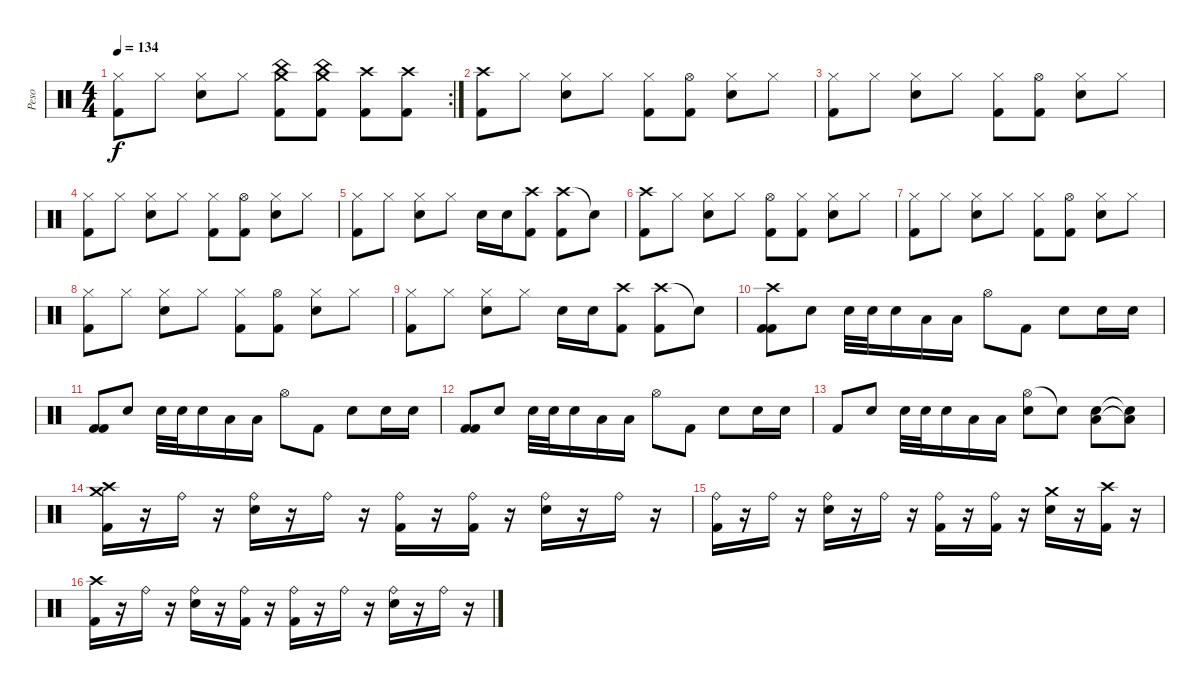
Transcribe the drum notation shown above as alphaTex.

\track ("Peso" "Peso") {instrument percussion}
\staff {score}
\articulation defaults
\rc 2
\ts (4 4)
\tempo 134
\clef neutral
\ks c
("Hi-Hat (closed)" "Kick (hit) 2").8{dy f} "Hi-Hat (closed)".8 ("Hi-Hat (closed)" "Snare (hit) 2").8 "Hi-Hat (closed)".8 ("Crash medium (hit)" "China (hit)" "Kick (hit) 2").8 ("Crash medium (hit)" "China (hit)" "Kick (hit) 2").8 ("Crash high (hit)" "Kick (hit) 2").8 ("Crash high (hit)" "Kick (hit) 2").8 |
("Crash high (hit)" "Kick (hit) 2").8 "Hi-Hat (closed)".8 ("Hi-Hat (closed)" "Snare (hit) 2").8 "Hi-Hat (closed)".8 ("Hi-Hat (closed)" "Kick (hit) 2").8 ("Hi-Hat (open)" "Kick (hit) 2").8 ("Hi-Hat (closed)" "Snare (hit) 2").8 "Hi-Hat (closed)".8 |
("Hi-Hat (closed)" "Kick (hit) 2").8 "Hi-Hat (closed)".8 ("Hi-Hat (closed)" "Snare (hit) 2").8 "Hi-Hat (closed)".8 ("Hi-Hat (closed)" "Kick (hit) 2").8 ("Hi-Hat (open)" "Kick (hit) 2").8 ("Hi-Hat (closed)" "Snare (hit) 2").8 "Hi-Hat (closed)".8 |
("Hi-Hat (closed)" "Kick (hit) 2").8 "Hi-Hat (closed)".8 ("Hi-Hat (closed)" "Snare (hit) 2").8 "Hi-Hat (closed)".8 ("Hi-Hat (closed)" "Kick (hit) 2").8 ("Hi-Hat (open)" "Kick (hit) 2").8 ("Hi-Hat (closed)" "Snare (hit) 2").8 "Hi-Hat (closed)".8 |
("Hi-Hat (closed)" "Kick (hit) 2").8 "Hi-Hat (closed)".8 ("Hi-Hat (closed)" "Snare (hit) 2").8 "Hi-Hat (closed)".8 "Snare (hit) 2".16 "Snare (hit) 2".16 ("Crash high (hit)" "Kick (hit) 2").8 ("Crash high (hit)" "Kick (hit) 2").8 "Snare (hit)"{t}.8 |
("Crash high (hit)" "Kick (hit) 2").8 "Hi-Hat (closed)".8 ("Hi-Hat (closed)" "Snare (hit) 2").8 "Hi-Hat (closed)".8 ("Hi-Hat (open)" "Kick (hit) 2").8 ("Hi-Hat (closed)" "Kick (hit) 2").8 ("Hi-Hat (closed)" "Snare (hit) 2").8 "Hi-Hat (closed)".8 |
("Hi-Hat (closed)" "Kick (hit) 2").8 "Hi-Hat (closed)".8 ("Hi-Hat (closed)" "Snare (hit) 2").8 "Hi-Hat (closed)".8 ("Hi-Hat (closed)" "Kick (hit) 2").8 ("Hi-Hat (open)" "Kick (hit) 2").8 ("Hi-Hat (closed)" "Snare (hit) 2").8 "Hi-Hat (closed)".8 |
("Hi-Hat (closed)" "Kick (hit) 2").8 "Hi-Hat (closed)".8 ("Hi-Hat (closed)" "Snare (hit) 2").8 "Hi-Hat (closed)".8 ("Hi-Hat (closed)" "Kick (hit) 2").8 ("Hi-Hat (open)" "Kick (hit) 2").8 ("Hi-Hat (closed)" "Snare (hit) 2").8 "Hi-Hat (closed)".8 |
("Hi-Hat (closed)" "Kick (hit) 2").8 "Hi-Hat (closed)".8 ("Hi-Hat (closed)" "Snare (hit) 2").8 "Hi-Hat (closed)".8 "Snare (hit) 2".16 "Snare (hit) 2".16 ("Crash high (hit)" "Kick (hit) 2").8 ("Crash high (hit)" "Kick (hit) 2").8 "Snare (hit)"{t}.8 |
("Crash high (hit)" "Kick (hit) 2" "Kick (hit) 2").8 "Snare (hit) 2".8 "Snare (hit) 2".32 "Snare (hit) 2".32 "Snare (hit) 2".16 "Low Floor Tom (hit)".16 "Low Floor Tom (hit)".16 "Hi-Hat (open)".8 "Kick (hit) 2".8 "Snare (hit) 2".8 "Snare (hit) 2".16 "Snare (hit) 2".16 |
("Kick (hit) 2" "Kick (hit) 2").8 "Snare (hit) 2".8 "Snare (hit) 2".32 "Snare (hit) 2".32 "Snare (hit) 2".16 "Low Floor Tom (hit)".16 "Low Floor Tom (hit)".16 "Hi-Hat (open)".8 "Kick (hit) 2".8 "Snare (hit) 2".8 "Snare (hit) 2".16 "Snare (hit) 2".16 |
("Kick (hit) 2" "Kick (hit) 2").8 "Snare (hit) 2".8 "Snare (hit) 2".32 "Snare (hit) 2".32 "Snare (hit) 2".16 "Low Floor Tom (hit)".16 "Low Floor Tom (hit)".16 "Hi-Hat (open)".8 "Kick (hit) 2".8 "Snare (hit) 2".8 "Snare (hit) 2".16 "Snare (hit) 2".16 |
"Kick (hit) 2".8 "Snare (hit) 2".8 "Snare (hit) 2".32 "Snare (hit) 2".32 "Snare (hit) 2".16 "Low Floor Tom (hit)".16 "Low Floor Tom (hit)".16 ("Hi-Hat (open)" "Snare (hit) 2").8 "Snare (hit)"{t}.8 ("Low Floor Tom (hit)" "Snare (hit) 2").8 ("Low Floor Tom (hit)"{t} "Snare (hit)"{t}).8 |
("Crash high (hit)" "Crash medium (hit)" "Kick (hit) 2").16 r.16 "Ride (bell)".16 r.16 ("Ride (bell)" "Snare (hit) 2").16 r.16 "Ride (bell)".16 r.16 ("Ride (bell)" "Kick (hit) 2").16 r.16 ("Ride (bell)" "Kick (hit) 2").16 r.16 ("Ride (bell)" "Snare (hit) 2").16 r.16 "Ride (bell)".16 r.16 |
("Ride (bell)" "Kick (hit) 2").16 r.16 "Ride (bell)".16 r.16 ("Ride (bell)" "Snare (hit) 2").16 r.16 "Ride (bell)".16 r.16 ("Ride (bell)" "Kick (hit) 2").16 r.16 ("Ride (bell)" "Kick (hit) 2").16 r.16 ("Crash medium (hit)" "Snare (hit) 2").16 r.16 ("Crash high (hit)" "Kick (hit) 2").16 r.16 |
("Crash high (hit)" "Kick (hit) 2").16 r.16 "Ride (bell)".16 r.16 ("Ride (bell)" "Snare (hit) 2").16 r.16 ("Ride (bell)" "Kick (hit) 2").16 r.16 ("Ride (bell)" "Kick (hit) 2").16 r.16 "Ride (bell)".16 r.16 ("Ride (bell)" "Snare (hit) 2").16 r.16 "Ride (bell)".16 r.16
